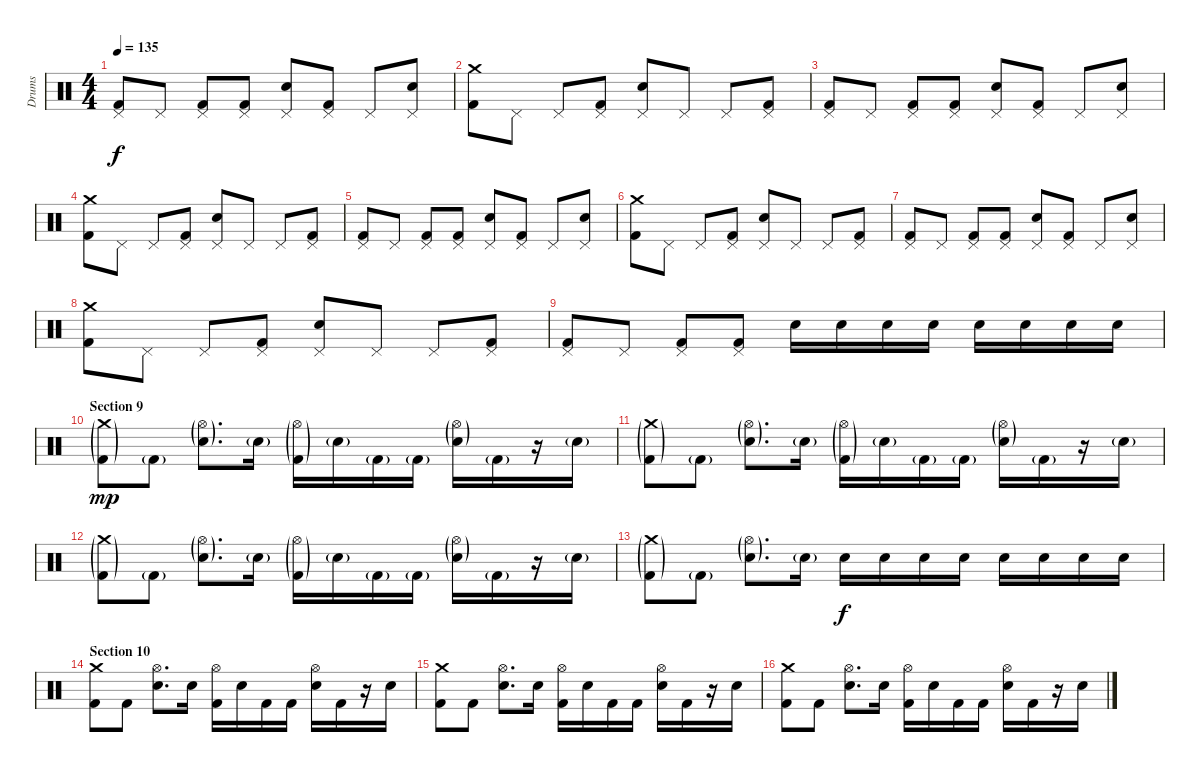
\track ("Drums" "Drums") {instrument percussion}
\staff {score}
\articulation defaults
\ts (4 4)
\tempo 135
\clef neutral
\ks c
("Pedal Hi-Hat (hit)" "Kick (hit) 2").8{dy f} "Pedal Hi-Hat (hit)".8 ("Pedal Hi-Hat (hit)" "Kick (hit) 2").8 ("Pedal Hi-Hat (hit)" "Kick (hit) 2").8 ("Pedal Hi-Hat (hit)" "Electric Snare (hit)").8 ("Pedal Hi-Hat (hit)" "Kick (hit) 2").8 "Pedal Hi-Hat (hit)".8 ("Pedal Hi-Hat (hit)" "Electric Snare (hit)").8 |
("Crash medium (hit)" "Kick (hit) 2").8 "Pedal Hi-Hat (hit)".8 "Pedal Hi-Hat (hit)".8 ("Pedal Hi-Hat (hit)" "Kick (hit) 2").8 ("Pedal Hi-Hat (hit)" "Electric Snare (hit)").8 "Pedal Hi-Hat (hit)".8 "Pedal Hi-Hat (hit)".8 ("Pedal Hi-Hat (hit)" "Kick (hit) 2").8 |
("Pedal Hi-Hat (hit)" "Kick (hit) 2").8 "Pedal Hi-Hat (hit)".8 ("Pedal Hi-Hat (hit)" "Kick (hit) 2").8 ("Pedal Hi-Hat (hit)" "Kick (hit) 2").8 ("Pedal Hi-Hat (hit)" "Electric Snare (hit)").8 ("Pedal Hi-Hat (hit)" "Kick (hit) 2").8 "Pedal Hi-Hat (hit)".8 ("Pedal Hi-Hat (hit)" "Electric Snare (hit)").8 |
("Crash medium (hit)" "Kick (hit) 2").8 "Pedal Hi-Hat (hit)".8 "Pedal Hi-Hat (hit)".8 ("Pedal Hi-Hat (hit)" "Kick (hit) 2").8 ("Pedal Hi-Hat (hit)" "Electric Snare (hit)").8 "Pedal Hi-Hat (hit)".8 "Pedal Hi-Hat (hit)".8 ("Pedal Hi-Hat (hit)" "Kick (hit) 2").8 |
("Pedal Hi-Hat (hit)" "Kick (hit) 2").8 "Pedal Hi-Hat (hit)".8 ("Pedal Hi-Hat (hit)" "Kick (hit) 2").8 ("Pedal Hi-Hat (hit)" "Kick (hit) 2").8 ("Pedal Hi-Hat (hit)" "Electric Snare (hit)").8 ("Pedal Hi-Hat (hit)" "Kick (hit) 2").8 "Pedal Hi-Hat (hit)".8 ("Pedal Hi-Hat (hit)" "Electric Snare (hit)").8 |
("Crash medium (hit)" "Kick (hit) 2").8 "Pedal Hi-Hat (hit)".8 "Pedal Hi-Hat (hit)".8 ("Pedal Hi-Hat (hit)" "Kick (hit) 2").8 ("Pedal Hi-Hat (hit)" "Electric Snare (hit)").8 "Pedal Hi-Hat (hit)".8 "Pedal Hi-Hat (hit)".8 ("Pedal Hi-Hat (hit)" "Kick (hit) 2").8 |
("Pedal Hi-Hat (hit)" "Kick (hit) 2").8 "Pedal Hi-Hat (hit)".8 ("Pedal Hi-Hat (hit)" "Kick (hit) 2").8 ("Pedal Hi-Hat (hit)" "Kick (hit) 2").8 ("Pedal Hi-Hat (hit)" "Electric Snare (hit)").8 ("Pedal Hi-Hat (hit)" "Kick (hit) 2").8 "Pedal Hi-Hat (hit)".8 ("Pedal Hi-Hat (hit)" "Electric Snare (hit)").8 |
("Crash medium (hit)" "Kick (hit) 2").8 "Pedal Hi-Hat (hit)".8 "Pedal Hi-Hat (hit)".8 ("Pedal Hi-Hat (hit)" "Kick (hit) 2").8 ("Pedal Hi-Hat (hit)" "Electric Snare (hit)").8 "Pedal Hi-Hat (hit)".8 "Pedal Hi-Hat (hit)".8 ("Pedal Hi-Hat (hit)" "Kick (hit) 2").8 |
("Pedal Hi-Hat (hit)" "Kick (hit) 2").8 "Pedal Hi-Hat (hit)".8 ("Pedal Hi-Hat (hit)" "Kick (hit) 2").8 ("Pedal Hi-Hat (hit)" "Kick (hit) 2").8 "Electric Snare (hit)".16 "Electric Snare (hit)".16 "Electric Snare (hit)".16 "Electric Snare (hit)".16 "Electric Snare (hit)".16 "Electric Snare (hit)".16 "Electric Snare (hit)".16 "Electric Snare (hit)".16 |
\section ("" "Section 9")
("Crash medium (hit)"{g} "Kick (hit) 2"{g}).8{dy mp} "Kick (hit) 2"{g}.8 ("Hi-Hat (open)"{g} "Electric Snare (hit)"{g}).8{d} "Electric Snare (hit)"{g}.16 ("Hi-Hat (open)"{g} "Kick (hit) 2"{g}).16 "Electric Snare (hit)"{g}.16 "Kick (hit) 2"{g}.16 "Kick (hit) 2"{g}.16 ("Hi-Hat (open)"{g} "Electric Snare (hit)"{g}).16 "Kick (hit) 2"{g}.16 r.16 "Electric Snare (hit)"{g}.16 |
("Crash medium (hit)"{g} "Kick (hit) 2"{g}).8 "Kick (hit) 2"{g}.8 ("Hi-Hat (open)"{g} "Electric Snare (hit)"{g}).8{d} "Electric Snare (hit)"{g}.16 ("Hi-Hat (open)"{g} "Kick (hit) 2"{g}).16 "Electric Snare (hit)"{g}.16 "Kick (hit) 2"{g}.16 "Kick (hit) 2"{g}.16 ("Hi-Hat (open)"{g} "Electric Snare (hit)"{g}).16 "Kick (hit) 2"{g}.16 r.16 "Electric Snare (hit)"{g}.16 |
("Crash medium (hit)"{g} "Kick (hit) 2"{g}).8 "Kick (hit) 2"{g}.8 ("Hi-Hat (open)"{g} "Electric Snare (hit)"{g}).8{d} "Electric Snare (hit)"{g}.16 ("Hi-Hat (open)"{g} "Kick (hit) 2"{g}).16 "Electric Snare (hit)"{g}.16 "Kick (hit) 2"{g}.16 "Kick (hit) 2"{g}.16 ("Hi-Hat (open)"{g} "Electric Snare (hit)"{g}).16 "Kick (hit) 2"{g}.16 r.16 "Electric Snare (hit)"{g}.16 |
("Crash medium (hit)"{g} "Kick (hit) 2"{g}).8 "Kick (hit) 2"{g}.8 ("Hi-Hat (open)"{g} "Electric Snare (hit)"{g}).8{d} "Electric Snare (hit)"{g}.16 "Electric Snare (hit)".16{dy f} "Electric Snare (hit)".16 "Electric Snare (hit)".16 "Electric Snare (hit)".16 "Electric Snare (hit)".16 "Electric Snare (hit)".16 "Electric Snare (hit)".16 "Electric Snare (hit)".16 |
\section ("" "Section 10")
("Crash medium (hit)" "Kick (hit) 2").8 "Kick (hit) 2".8 ("Hi-Hat (open)" "Electric Snare (hit)").8{d} "Electric Snare (hit)".16 ("Hi-Hat (open)" "Kick (hit) 2").16 "Electric Snare (hit)".16 "Kick (hit) 2".16 "Kick (hit) 2".16 ("Hi-Hat (open)" "Electric Snare (hit)").16 "Kick (hit) 2".16 r.16 "Electric Snare (hit)".16 |
("Crash medium (hit)" "Kick (hit) 2").8 "Kick (hit) 2".8 ("Hi-Hat (open)" "Electric Snare (hit)").8{d} "Electric Snare (hit)".16 ("Hi-Hat (open)" "Kick (hit) 2").16 "Electric Snare (hit)".16 "Kick (hit) 2".16 "Kick (hit) 2".16 ("Hi-Hat (open)" "Electric Snare (hit)").16 "Kick (hit) 2".16 r.16 "Electric Snare (hit)".16 |
("Crash medium (hit)" "Kick (hit) 2").8 "Kick (hit) 2".8 ("Hi-Hat (open)" "Electric Snare (hit)").8{d} "Electric Snare (hit)".16 ("Hi-Hat (open)" "Kick (hit) 2").16 "Electric Snare (hit)".16 "Kick (hit) 2".16 "Kick (hit) 2".16 ("Hi-Hat (open)" "Electric Snare (hit)").16 "Kick (hit) 2".16 r.16 "Electric Snare (hit)".16
